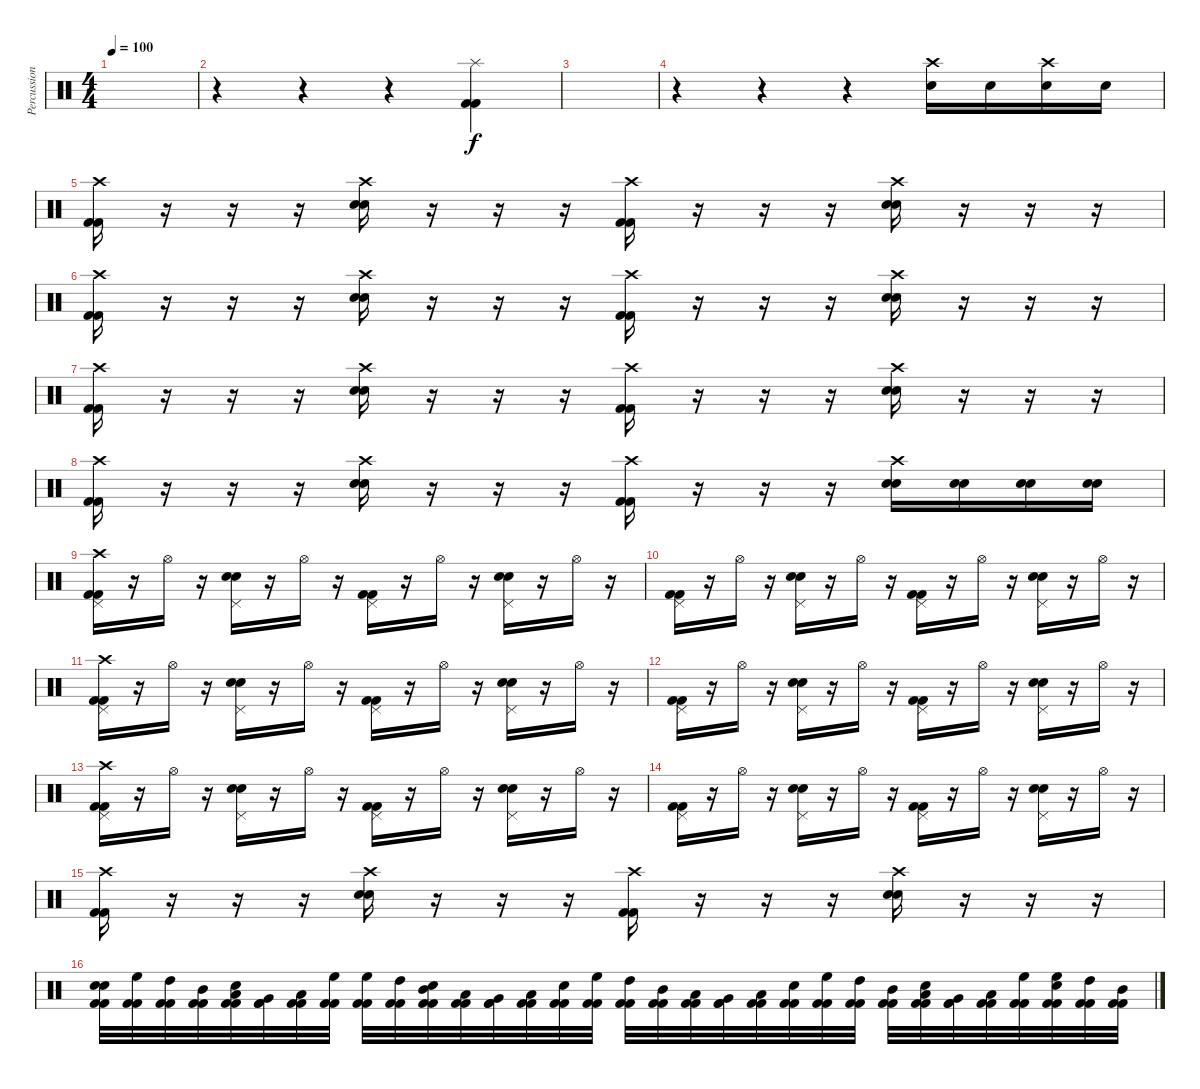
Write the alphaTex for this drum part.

\track ("Percussions" "Percussion") {instrument percussion}
\staff {score}
\articulation defaults
\ts (4 4)
\tempo 100
\clef neutral
\ks c
|
r.4 r.4 r.4 ("Splash (hit)" "Kick (hit) 2" "Kick (hit) 2").4 |
|
r.4 r.4 r.4 ("Crash high (hit)" "Electric Snare (hit)").16 "Electric Snare (hit)".16 ("Crash high (hit)" "Electric Snare (hit)").16 "Electric Snare (hit)".16 |
("Crash high (hit)" "Kick (hit) 2" "Kick (hit) 2").16 r.16 r.16 r.16 ("Crash high (hit)" "Electric Snare (hit)" "Electric Snare (hit)").16 r.16 r.16 r.16 ("Crash high (hit)" "Kick (hit) 2" "Kick (hit) 2").16 r.16 r.16 r.16 ("Crash high (hit)" "Electric Snare (hit)" "Electric Snare (hit)").16 r.16 r.16 r.16 |
("Crash high (hit)" "Kick (hit) 2" "Kick (hit) 2").16 r.16 r.16 r.16 ("Crash high (hit)" "Electric Snare (hit)" "Electric Snare (hit)").16 r.16 r.16 r.16 ("Crash high (hit)" "Kick (hit) 2" "Kick (hit) 2").16 r.16 r.16 r.16 ("Crash high (hit)" "Electric Snare (hit)" "Electric Snare (hit)").16 r.16 r.16 r.16 |
("Crash high (hit)" "Kick (hit) 2" "Kick (hit) 2").16 r.16 r.16 r.16 ("Crash high (hit)" "Electric Snare (hit)" "Electric Snare (hit)").16 r.16 r.16 r.16 ("Crash high (hit)" "Kick (hit) 2" "Kick (hit) 2").16 r.16 r.16 r.16 ("Crash high (hit)" "Electric Snare (hit)" "Electric Snare (hit)").16 r.16 r.16 r.16 |
("Crash high (hit)" "Kick (hit) 2" "Kick (hit) 2").16 r.16 r.16 r.16 ("Crash high (hit)" "Electric Snare (hit)" "Electric Snare (hit)").16 r.16 r.16 r.16 ("Crash high (hit)" "Kick (hit) 2" "Kick (hit) 2").16 r.16 r.16 r.16 ("Crash high (hit)" "Electric Snare (hit)" "Electric Snare (hit)").16 ("Electric Snare (hit)" "Electric Snare (hit)").16 ("Electric Snare (hit)" "Electric Snare (hit)").16 ("Electric Snare (hit)" "Electric Snare (hit)").16 |
("Crash high (hit)" "Pedal Hi-Hat (hit)" "Kick (hit) 2" "Kick (hit) 2").16 r.16 "Hi-Hat (open)".16 r.16 ("Pedal Hi-Hat (hit)" "Electric Snare (hit)" "Electric Snare (hit)").16 r.16 "Hi-Hat (open)".16 r.16 ("Pedal Hi-Hat (hit)" "Kick (hit) 2" "Kick (hit) 2").16 r.16 "Hi-Hat (open)".16 r.16 ("Pedal Hi-Hat (hit)" "Electric Snare (hit)" "Electric Snare (hit)").16 r.16 "Hi-Hat (open)".16 r.16 |
("Pedal Hi-Hat (hit)" "Kick (hit) 2" "Kick (hit) 2").16 r.16 "Hi-Hat (open)".16 r.16 ("Pedal Hi-Hat (hit)" "Electric Snare (hit)" "Electric Snare (hit)").16 r.16 "Hi-Hat (open)".16 r.16 ("Pedal Hi-Hat (hit)" "Kick (hit) 2" "Kick (hit) 2").16 r.16 "Hi-Hat (open)".16 r.16 ("Pedal Hi-Hat (hit)" "Electric Snare (hit)" "Electric Snare (hit)").16 r.16 "Hi-Hat (open)".16 r.16 |
("Crash high (hit)" "Pedal Hi-Hat (hit)" "Kick (hit) 2" "Kick (hit) 2").16 r.16 "Hi-Hat (open)".16 r.16 ("Pedal Hi-Hat (hit)" "Electric Snare (hit)" "Electric Snare (hit)").16 r.16 "Hi-Hat (open)".16 r.16 ("Pedal Hi-Hat (hit)" "Kick (hit) 2" "Kick (hit) 2").16 r.16 "Hi-Hat (open)".16 r.16 ("Pedal Hi-Hat (hit)" "Electric Snare (hit)" "Electric Snare (hit)").16 r.16 "Hi-Hat (open)".16 r.16 |
("Pedal Hi-Hat (hit)" "Kick (hit) 2" "Kick (hit) 2").16 r.16 "Hi-Hat (open)".16 r.16 ("Pedal Hi-Hat (hit)" "Electric Snare (hit)" "Electric Snare (hit)").16 r.16 "Hi-Hat (open)".16 r.16 ("Pedal Hi-Hat (hit)" "Kick (hit) 2" "Kick (hit) 2").16 r.16 "Hi-Hat (open)".16 r.16 ("Pedal Hi-Hat (hit)" "Electric Snare (hit)" "Electric Snare (hit)").16 r.16 "Hi-Hat (open)".16 r.16 |
("Crash high (hit)" "Pedal Hi-Hat (hit)" "Kick (hit) 2" "Kick (hit) 2").16 r.16 "Hi-Hat (open)".16 r.16 ("Pedal Hi-Hat (hit)" "Electric Snare (hit)" "Electric Snare (hit)").16 r.16 "Hi-Hat (open)".16 r.16 ("Pedal Hi-Hat (hit)" "Kick (hit) 2" "Kick (hit) 2").16 r.16 "Hi-Hat (open)".16 r.16 ("Pedal Hi-Hat (hit)" "Electric Snare (hit)" "Electric Snare (hit)").16 r.16 "Hi-Hat (open)".16 r.16 |
("Pedal Hi-Hat (hit)" "Kick (hit) 2" "Kick (hit) 2").16 r.16 "Hi-Hat (open)".16 r.16 ("Pedal Hi-Hat (hit)" "Electric Snare (hit)" "Electric Snare (hit)").16 r.16 "Hi-Hat (open)".16 r.16 ("Pedal Hi-Hat (hit)" "Kick (hit) 2" "Kick (hit) 2").16 r.16 "Hi-Hat (open)".16 r.16 ("Pedal Hi-Hat (hit)" "Electric Snare (hit)" "Electric Snare (hit)").16 r.16 "Hi-Hat (open)".16 r.16 |
("Crash high (hit)" "Kick (hit) 2" "Kick (hit) 2").16 r.16 r.16 r.16 ("Crash high (hit)" "Electric Snare (hit)" "Electric Snare (hit)").16 r.16 r.16 r.16 ("Crash high (hit)" "Kick (hit) 2" "Kick (hit) 2").16 r.16 r.16 r.16 ("Crash high (hit)" "Electric Snare (hit)" "Electric Snare (hit)").16 r.16 r.16 r.16 |
("Electric Snare (hit)" "Electric Snare (hit)" "Kick (hit) 2" "Kick (hit) 2").32 ("High Floor Tom (hit)" "Kick (hit) 2" "Kick (hit) 2").32 ("High Tom (hit)" "Kick (hit) 2" "Kick (hit) 2").32 ("Mid Tom (hit)" "Kick (hit) 2" "Kick (hit) 2").32 ("Low Tom (hit)" "Electric Snare (hit)" "Kick (hit) 2" "Kick (hit) 2").32 ("Very Low Tom (hit)" "Kick (hit) 2" "Kick (hit) 2").32 ("Low Floor Tom (hit)" "Kick (hit) 2" "Kick (hit) 2").32 ("High Floor Tom (hit)" "Kick (hit) 2" "Kick (hit) 2").32 ("High Floor Tom (hit)" "Kick (hit) 2" "Kick (hit) 2").32 ("High Tom (hit)" "Kick (hit) 2" "Kick (hit) 2").32 ("Mid Tom (hit)" "Electric Snare (hit)" "Kick (hit) 2" "Kick (hit) 2").32 ("Low Tom (hit)" "Kick (hit) 2" "Kick (hit) 2").32 ("Very Low Tom (hit)" "Kick (hit) 2" "Kick (hit) 2").32 ("Low Floor Tom (hit)" "Kick (hit) 2" "Kick (hit) 2").32 ("Electric Snare (hit)" "Kick (hit) 2" "Kick (hit) 2").32 ("High Floor Tom (hit)" "Kick (hit) 2" "Kick (hit) 2").32 ("High Tom (hit)" "Kick (hit) 2" "Kick (hit) 2").32 ("Mid Tom (hit)" "Kick (hit) 2" "Kick (hit) 2").32 ("Low Tom (hit)" "Kick (hit) 2" "Kick (hit) 2").32 ("Very Low Tom (hit)" "Kick (hit) 2" "Kick (hit) 2").32 ("Low Floor Tom (hit)" "Kick (hit) 2" "Kick (hit) 2").32 ("Electric Snare (hit)" "Kick (hit) 2" "Kick (hit) 2").32 ("High Floor Tom (hit)" "Kick (hit) 2" "Kick (hit) 2").32 ("High Tom (hit)" "Kick (hit) 2" "Kick (hit) 2").32 ("Mid Tom (hit)" "Kick (hit) 2" "Kick (hit) 2").32 ("Low Tom (hit)" "Electric Snare (hit)" "Kick (hit) 2" "Kick (hit) 2").32 ("Very Low Tom (hit)" "Kick (hit) 2" "Kick (hit) 2").32 ("Low Floor Tom (hit)" "Kick (hit) 2" "Kick (hit) 2").32 ("High Floor Tom (hit)" "Kick (hit) 2" "Kick (hit) 2").32 ("High Floor Tom (hit)" "Electric Snare (hit)" "Kick (hit) 2" "Kick (hit) 2").32 ("High Tom (hit)" "Kick (hit) 2" "Kick (hit) 2").32 ("Mid Tom (hit)" "Kick (hit) 2" "Kick (hit) 2").32
